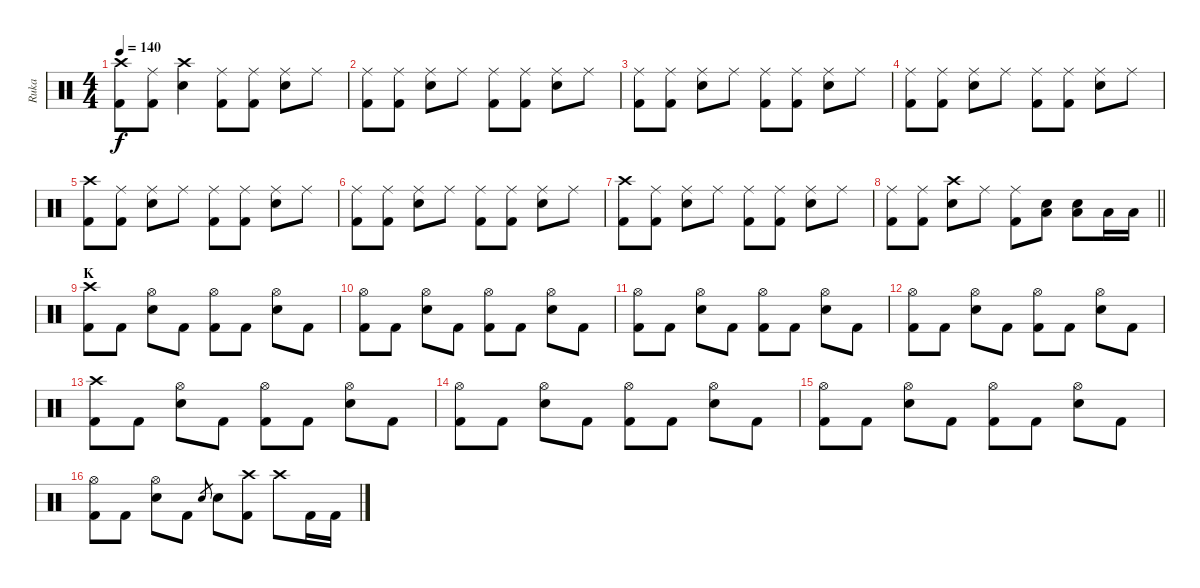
\track ("Ruka" "Ruka") {instrument percussion}
\staff {score}
\articulation defaults
\ts (4 4)
\tempo 140
\clef neutral
\ks c
("Crash high (hit)" "Kick (hit) 2").8{dy f} ("Ride (middle)" "Kick (hit) 2").8 ("Crash high (hit)" "Snare (hit) 2").4 ("Ride (middle)" "Kick (hit) 2").8 ("Ride (middle)" "Kick (hit) 2").8 ("Ride (middle)" "Snare (hit) 2").8 "Ride (middle)".8 |
("Ride (middle)" "Kick (hit) 2").8 ("Ride (middle)" "Kick (hit) 2").8 ("Ride (middle)" "Snare (hit) 2").8 "Ride (middle)".8 ("Ride (middle)" "Kick (hit) 2").8 ("Ride (middle)" "Kick (hit) 2").8 ("Ride (middle)" "Snare (hit) 2").8 "Ride (middle)".8 |
("Ride (middle)" "Kick (hit) 2").8 ("Ride (middle)" "Kick (hit) 2").8 ("Ride (middle)" "Snare (hit) 2").8 "Ride (middle)".8 ("Ride (middle)" "Kick (hit) 2").8 ("Ride (middle)" "Kick (hit) 2").8 ("Ride (middle)" "Snare (hit) 2").8 "Ride (middle)".8 |
("Ride (middle)" "Kick (hit) 2").8 ("Ride (middle)" "Kick (hit) 2").8 ("Ride (middle)" "Snare (hit) 2").8 "Ride (middle)".8 ("Ride (middle)" "Kick (hit) 2").8 ("Ride (middle)" "Kick (hit) 2").8 ("Ride (middle)" "Snare (hit) 2").8 "Ride (middle)".8 |
("Crash high (hit)" "Kick (hit) 2").8 ("Ride (middle)" "Kick (hit) 2").8 ("Ride (middle)" "Snare (hit) 2").8 "Ride (middle)".8 ("Ride (middle)" "Kick (hit) 2").8 ("Ride (middle)" "Kick (hit) 2").8 ("Ride (middle)" "Snare (hit) 2").8 "Ride (middle)".8 |
("Ride (middle)" "Kick (hit) 2").8 ("Ride (middle)" "Kick (hit) 2").8 ("Ride (middle)" "Snare (hit) 2").8 "Ride (middle)".8 ("Ride (middle)" "Kick (hit) 2").8 ("Ride (middle)" "Kick (hit) 2").8 ("Ride (middle)" "Snare (hit) 2").8 "Ride (middle)".8 |
("Crash high (hit)" "Kick (hit) 2").8 ("Ride (middle)" "Kick (hit) 2").8 ("Ride (middle)" "Snare (hit) 2").8 "Ride (middle)".8 ("Ride (middle)" "Kick (hit) 2").8 ("Ride (middle)" "Kick (hit) 2").8 ("Ride (middle)" "Snare (hit) 2").8 "Ride (middle)".8 |
\barLineRight lightlight
("Ride (middle)" "Kick (hit) 2").8 ("Ride (middle)" "Kick (hit) 2").8 ("Crash high (hit)" "Snare (hit) 2").8 "Ride (middle)".8 ("Ride (middle)" "Kick (hit) 2").8 ("Low Tom (hit)" "Snare (hit) 2").8 ("Low Tom (hit)" "Snare (hit) 2").8 "Low Tom (hit)".16 "Low Tom (hit)".16 |
\section ("" "K")
("Crash high (hit)" "Kick (hit) 2").8 "Kick (hit) 2".8 ("Hi-Hat (open)" "Snare (hit) 2").8 "Kick (hit) 2".8 ("Hi-Hat (open)" "Kick (hit) 2").8 "Kick (hit) 2".8 ("Hi-Hat (open)" "Snare (hit) 2").8 "Kick (hit) 2".8 |
("Hi-Hat (open)" "Kick (hit) 2").8 "Kick (hit) 2".8 ("Hi-Hat (open)" "Snare (hit) 2").8 "Kick (hit) 2".8 ("Hi-Hat (open)" "Kick (hit) 2").8 "Kick (hit) 2".8 ("Hi-Hat (open)" "Snare (hit) 2").8 "Kick (hit) 2".8 |
("Hi-Hat (open)" "Kick (hit) 2").8 "Kick (hit) 2".8 ("Hi-Hat (open)" "Snare (hit) 2").8 "Kick (hit) 2".8 ("Hi-Hat (open)" "Kick (hit) 2").8 "Kick (hit) 2".8 ("Hi-Hat (open)" "Snare (hit) 2").8 "Kick (hit) 2".8 |
("Hi-Hat (open)" "Kick (hit) 2").8 "Kick (hit) 2".8 ("Hi-Hat (open)" "Snare (hit) 2").8 "Kick (hit) 2".8 ("Hi-Hat (open)" "Kick (hit) 2").8 "Kick (hit) 2".8 ("Hi-Hat (open)" "Snare (hit) 2").8 "Kick (hit) 2".8 |
("Crash high (hit)" "Kick (hit) 2").8 "Kick (hit) 2".8 ("Hi-Hat (open)" "Snare (hit) 2").8 "Kick (hit) 2".8 ("Hi-Hat (open)" "Kick (hit) 2").8 "Kick (hit) 2".8 ("Hi-Hat (open)" "Snare (hit) 2").8 "Kick (hit) 2".8 |
("Hi-Hat (open)" "Kick (hit) 2").8 "Kick (hit) 2".8 ("Hi-Hat (open)" "Snare (hit) 2").8 "Kick (hit) 2".8 ("Hi-Hat (open)" "Kick (hit) 2").8 "Kick (hit) 2".8 ("Hi-Hat (open)" "Snare (hit) 2").8 "Kick (hit) 2".8 |
("Hi-Hat (open)" "Kick (hit) 2").8 "Kick (hit) 2".8 ("Hi-Hat (open)" "Snare (hit) 2").8 "Kick (hit) 2".8 ("Hi-Hat (open)" "Kick (hit) 2").8 "Kick (hit) 2".8 ("Hi-Hat (open)" "Snare (hit) 2").8 "Kick (hit) 2".8 |
("Hi-Hat (open)" "Kick (hit) 2").8 "Kick (hit) 2".8 ("Hi-Hat (open)" "Snare (hit) 2").8 "Kick (hit) 2".8 "Snare (hit) 2".8{gr} "Snare (hit) 2".8 ("Crash high (hit)" "Kick (hit) 2").8 "Crash high (hit)".8 "Kick (hit) 2".16 "Kick (hit) 2".16
